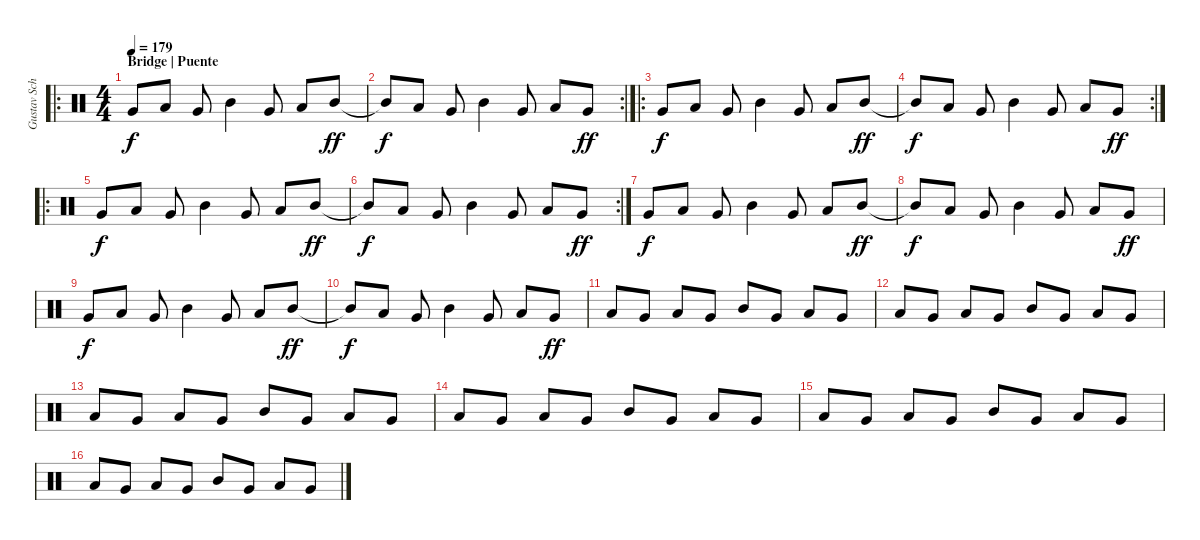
\track ("Gustav Schäfer" "Gustav Sch") {instrument percussion}
\staff {score}
\articulation defaults
\ro
\ts (4 4)
\section ("" "Bridge | Puente")
\tempo 179
\clef neutral
\ks c "Very Low Tom (hit)".8{dy f} "Low Tom (hit)".8 "Very Low Tom (hit)".8 "Mid Tom (hit)".4 "Very Low Tom (hit)".8 "Low Tom (hit)".8 "Mid Tom (hit)".8{dy ff}
|
\rc 2 "Mid Tom (hit)"{t}.8{dy f} "Low Tom (hit)".8 "Very Low Tom (hit)".8 "Mid Tom (hit)".4 "Very Low Tom (hit)".8 "Low Tom (hit)".8 "Very Low Tom (hit)".8{dy ff}
|
\ro "Very Low Tom (hit)".8{dy f} "Low Tom (hit)".8 "Very Low Tom (hit)".8 "Mid Tom (hit)".4 "Very Low Tom (hit)".8 "Low Tom (hit)".8 "Mid Tom (hit)".8{dy ff}
|
\rc 2 "Mid Tom (hit)"{t}.8{dy f} "Low Tom (hit)".8 "Very Low Tom (hit)".8 "Mid Tom (hit)".4 "Very Low Tom (hit)".8 "Low Tom (hit)".8 "Very Low Tom (hit)".8{dy ff}
|
\ro "Very Low Tom (hit)".8{dy f} "Low Tom (hit)".8 "Very Low Tom (hit)".8 "Mid Tom (hit)".4 "Very Low Tom (hit)".8 "Low Tom (hit)".8 "Mid Tom (hit)".8{dy ff}
|
\rc 2 "Mid Tom (hit)"{t}.8{dy f} "Low Tom (hit)".8 "Very Low Tom (hit)".8 "Mid Tom (hit)".4 "Very Low Tom (hit)".8 "Low Tom (hit)".8 "Very Low Tom (hit)".8{dy ff}
|
"Very Low Tom (hit)".8{dy f} "Low Tom (hit)".8 "Very Low Tom (hit)".8 "Mid Tom (hit)".4 "Very Low Tom (hit)".8 "Low Tom (hit)".8 "Mid Tom (hit)".8{dy ff} |
"Mid Tom (hit)"{t}.8{dy f} "Low Tom (hit)".8 "Very Low Tom (hit)".8 "Mid Tom (hit)".4 "Very Low Tom (hit)".8 "Low Tom (hit)".8 "Very Low Tom (hit)".8{dy ff} |
"Very Low Tom (hit)".8{dy f} "Low Tom (hit)".8 "Very Low Tom (hit)".8 "Mid Tom (hit)".4 "Very Low Tom (hit)".8 "Low Tom (hit)".8 "Mid Tom (hit)".8{dy ff} |
"Mid Tom (hit)"{t}.8{dy f} "Low Tom (hit)".8 "Very Low Tom (hit)".8 "Mid Tom (hit)".4 "Very Low Tom (hit)".8 "Low Tom (hit)".8 "Very Low Tom (hit)".8{dy ff} |
"Low Tom (hit)".8 "Very Low Tom (hit)".8 "Low Tom (hit)".8 "Very Low Tom (hit)".8 "Mid Tom (hit)".8 "Very Low Tom (hit)".8 "Low Tom (hit)".8 "Very Low Tom (hit)".8 |
"Low Tom (hit)".8 "Very Low Tom (hit)".8 "Low Tom (hit)".8 "Very Low Tom (hit)".8 "Mid Tom (hit)".8 "Very Low Tom (hit)".8 "Low Tom (hit)".8 "Very Low Tom (hit)".8 |
"Low Tom (hit)".8 "Very Low Tom (hit)".8 "Low Tom (hit)".8 "Very Low Tom (hit)".8 "Mid Tom (hit)".8 "Very Low Tom (hit)".8 "Low Tom (hit)".8 "Very Low Tom (hit)".8 |
"Low Tom (hit)".8 "Very Low Tom (hit)".8 "Low Tom (hit)".8 "Very Low Tom (hit)".8 "Mid Tom (hit)".8 "Very Low Tom (hit)".8 "Low Tom (hit)".8 "Very Low Tom (hit)".8 |
"Low Tom (hit)".8 "Very Low Tom (hit)".8 "Low Tom (hit)".8 "Very Low Tom (hit)".8 "Mid Tom (hit)".8 "Very Low Tom (hit)".8 "Low Tom (hit)".8 "Very Low Tom (hit)".8 |
"Low Tom (hit)".8 "Very Low Tom (hit)".8 "Low Tom (hit)".8 "Very Low Tom (hit)".8 "Mid Tom (hit)".8 "Very Low Tom (hit)".8 "Low Tom (hit)".8 "Very Low Tom (hit)".8
